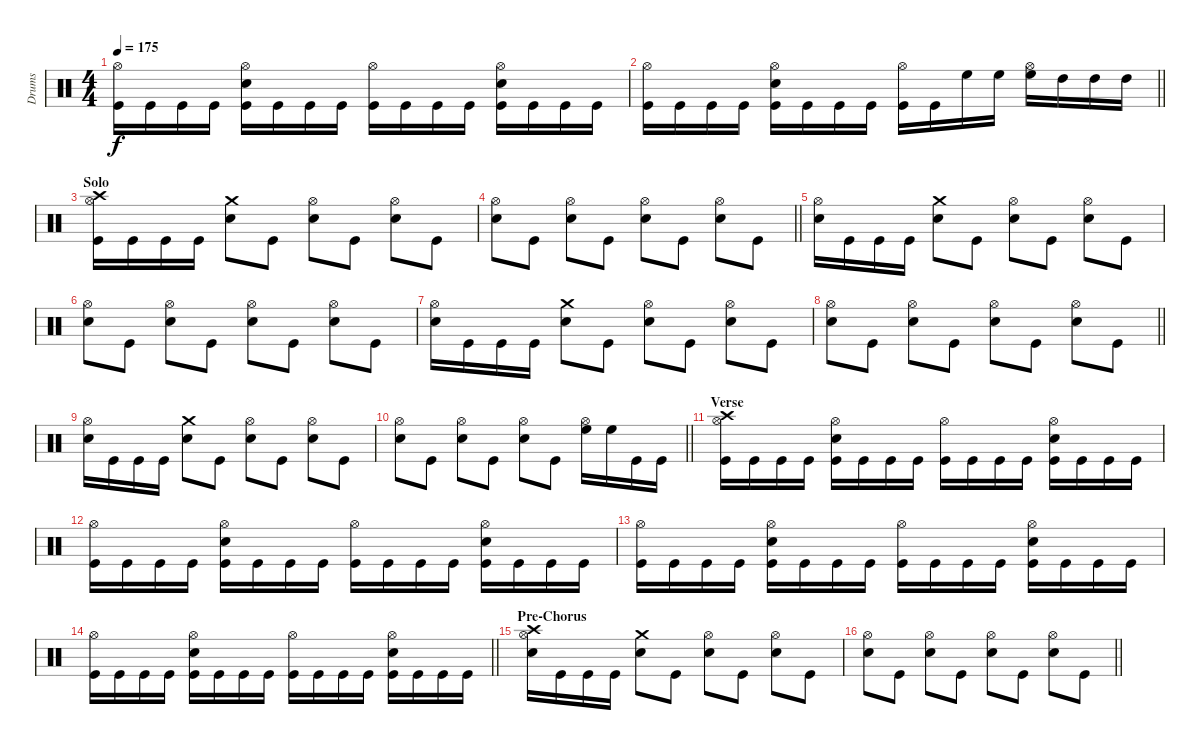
\track ("Drums" "Drums") {instrument percussion}
\staff {score}
\articulation defaults
\ts (4 4)
\tempo 175
\clef neutral
\ks c
("Hi-Hat (open)" "Kick (hit)").16{dy f} "Kick (hit)".16 "Kick (hit)".16 "Kick (hit)".16 ("Hi-Hat (open)" "Electric Snare (hit)" "Kick (hit)").16 "Kick (hit)".16 "Kick (hit)".16 "Kick (hit)".16 ("Hi-Hat (open)" "Kick (hit)").16 "Kick (hit)".16 "Kick (hit)".16 "Kick (hit)".16 ("Hi-Hat (open)" "Electric Snare (hit)" "Kick (hit)").16 "Kick (hit)".16 "Kick (hit)".16 "Kick (hit)".16 |
\barLineRight lightlight
("Hi-Hat (open)" "Kick (hit)").16 "Kick (hit)".16 "Kick (hit)".16 "Kick (hit)".16 ("Hi-Hat (open)" "Electric Snare (hit)" "Kick (hit)").16 "Kick (hit)".16 "Kick (hit)".16 "Kick (hit)".16 ("Hi-Hat (open)" "Kick (hit)").16 "Kick (hit)".16 "High Floor Tom (hit)".16 "High Floor Tom (hit)".16 ("Hi-Hat (open)" "High Floor Tom (hit)").16 "High Tom (hit)".16 "High Tom (hit)".16 "High Tom (hit)".16 |
\section ("" "Solo")
("Crash high (hit)" "Hi-Hat (open)" "Kick (hit)").16 "Kick (hit)".16 "Kick (hit)".16 "Kick (hit)".16 ("Crash medium (hit)" "Electric Snare (hit)").8 "Kick (hit)".8 ("Hi-Hat (open)" "Electric Snare (hit)").8 "Kick (hit)".8 ("Hi-Hat (open)" "Electric Snare (hit)").8 "Kick (hit)".8 |
\barLineRight lightlight
("Hi-Hat (open)" "Electric Snare (hit)").8 "Kick (hit)".8 ("Hi-Hat (open)" "Electric Snare (hit)").8 "Kick (hit)".8 ("Hi-Hat (open)" "Electric Snare (hit)").8 "Kick (hit)".8 ("Hi-Hat (open)" "Electric Snare (hit)").8 "Kick (hit)".8 |
("Hi-Hat (open)" "Electric Snare (hit)").16 "Kick (hit)".16 "Kick (hit)".16 "Kick (hit)".16 ("Crash medium (hit)" "Electric Snare (hit)").8 "Kick (hit)".8 ("Hi-Hat (open)" "Electric Snare (hit)").8 "Kick (hit)".8 ("Hi-Hat (open)" "Electric Snare (hit)").8 "Kick (hit)".8 |
("Hi-Hat (open)" "Electric Snare (hit)").8 "Kick (hit)".8 ("Hi-Hat (open)" "Electric Snare (hit)").8 "Kick (hit)".8 ("Hi-Hat (open)" "Electric Snare (hit)").8 "Kick (hit)".8 ("Hi-Hat (open)" "Electric Snare (hit)").8 "Kick (hit)".8 |
("Hi-Hat (open)" "Electric Snare (hit)").16 "Kick (hit)".16 "Kick (hit)".16 "Kick (hit)".16 ("Crash medium (hit)" "Electric Snare (hit)").8 "Kick (hit)".8 ("Hi-Hat (open)" "Electric Snare (hit)").8 "Kick (hit)".8 ("Hi-Hat (open)" "Electric Snare (hit)").8 "Kick (hit)".8 |
\barLineRight lightlight
("Hi-Hat (open)" "Electric Snare (hit)").8 "Kick (hit)".8 ("Hi-Hat (open)" "Electric Snare (hit)").8 "Kick (hit)".8 ("Hi-Hat (open)" "Electric Snare (hit)").8 "Kick (hit)".8 ("Hi-Hat (open)" "Electric Snare (hit)").8 "Kick (hit)".8 |
("Hi-Hat (open)" "Electric Snare (hit)").16 "Kick (hit)".16 "Kick (hit)".16 "Kick (hit)".16 ("Crash medium (hit)" "Electric Snare (hit)").8 "Kick (hit)".8 ("Hi-Hat (open)" "Electric Snare (hit)").8 "Kick (hit)".8 ("Hi-Hat (open)" "Electric Snare (hit)").8 "Kick (hit)".8 |
\barLineRight lightlight
("Hi-Hat (open)" "Electric Snare (hit)").8 "Kick (hit)".8 ("Hi-Hat (open)" "Electric Snare (hit)").8 "Kick (hit)".8 ("Hi-Hat (open)" "Electric Snare (hit)").8 "Kick (hit)".8 ("Hi-Hat (open)" "High Floor Tom (hit)").16 "High Floor Tom (hit)".16 "Kick (hit)".16 "Kick (hit)".16 |
\section ("" "Verse")
("Crash high (hit)" "Hi-Hat (open)" "Kick (hit)").16 "Kick (hit)".16 "Kick (hit)".16 "Kick (hit)".16 ("Hi-Hat (open)" "Electric Snare (hit)" "Kick (hit)").16 "Kick (hit)".16 "Kick (hit)".16 "Kick (hit)".16 ("Hi-Hat (open)" "Kick (hit)").16 "Kick (hit)".16 "Kick (hit)".16 "Kick (hit)".16 ("Hi-Hat (open)" "Electric Snare (hit)" "Kick (hit)").16 "Kick (hit)".16 "Kick (hit)".16 "Kick (hit)".16 |
("Hi-Hat (open)" "Kick (hit)").16 "Kick (hit)".16 "Kick (hit)".16 "Kick (hit)".16 ("Hi-Hat (open)" "Electric Snare (hit)" "Kick (hit)").16 "Kick (hit)".16 "Kick (hit)".16 "Kick (hit)".16 ("Hi-Hat (open)" "Kick (hit)").16 "Kick (hit)".16 "Kick (hit)".16 "Kick (hit)".16 ("Hi-Hat (open)" "Electric Snare (hit)" "Kick (hit)").16 "Kick (hit)".16 "Kick (hit)".16 "Kick (hit)".16 |
("Hi-Hat (open)" "Kick (hit)").16 "Kick (hit)".16 "Kick (hit)".16 "Kick (hit)".16 ("Hi-Hat (open)" "Electric Snare (hit)" "Kick (hit)").16 "Kick (hit)".16 "Kick (hit)".16 "Kick (hit)".16 ("Hi-Hat (open)" "Kick (hit)").16 "Kick (hit)".16 "Kick (hit)".16 "Kick (hit)".16 ("Hi-Hat (open)" "Electric Snare (hit)" "Kick (hit)").16 "Kick (hit)".16 "Kick (hit)".16 "Kick (hit)".16 |
\barLineRight lightlight
("Hi-Hat (open)" "Kick (hit)").16 "Kick (hit)".16 "Kick (hit)".16 "Kick (hit)".16 ("Hi-Hat (open)" "Electric Snare (hit)" "Kick (hit)").16 "Kick (hit)".16 "Kick (hit)".16 "Kick (hit)".16 ("Hi-Hat (open)" "Kick (hit)").16 "Kick (hit)".16 "Kick (hit)".16 "Kick (hit)".16 ("Hi-Hat (open)" "Electric Snare (hit)" "Kick (hit)").16 "Kick (hit)".16 "Kick (hit)".16 "Kick (hit)".16 |
\section ("" "Pre-Chorus")
("Crash high (hit)" "Hi-Hat (open)" "Electric Snare (hit)").16 "Kick (hit)".16 "Kick (hit)".16 "Kick (hit)".16 ("Crash medium (hit)" "Electric Snare (hit)").8 "Kick (hit)".8 ("Hi-Hat (open)" "Electric Snare (hit)").8 "Kick (hit)".8 ("Hi-Hat (open)" "Electric Snare (hit)").8 "Kick (hit)".8 |
\barLineRight lightlight
("Hi-Hat (open)" "Electric Snare (hit)").8 "Kick (hit)".8 ("Hi-Hat (open)" "Electric Snare (hit)").8 "Kick (hit)".8 ("Hi-Hat (open)" "Electric Snare (hit)").8 "Kick (hit)".8 ("Hi-Hat (open)" "Electric Snare (hit)").8 "Kick (hit)".8
